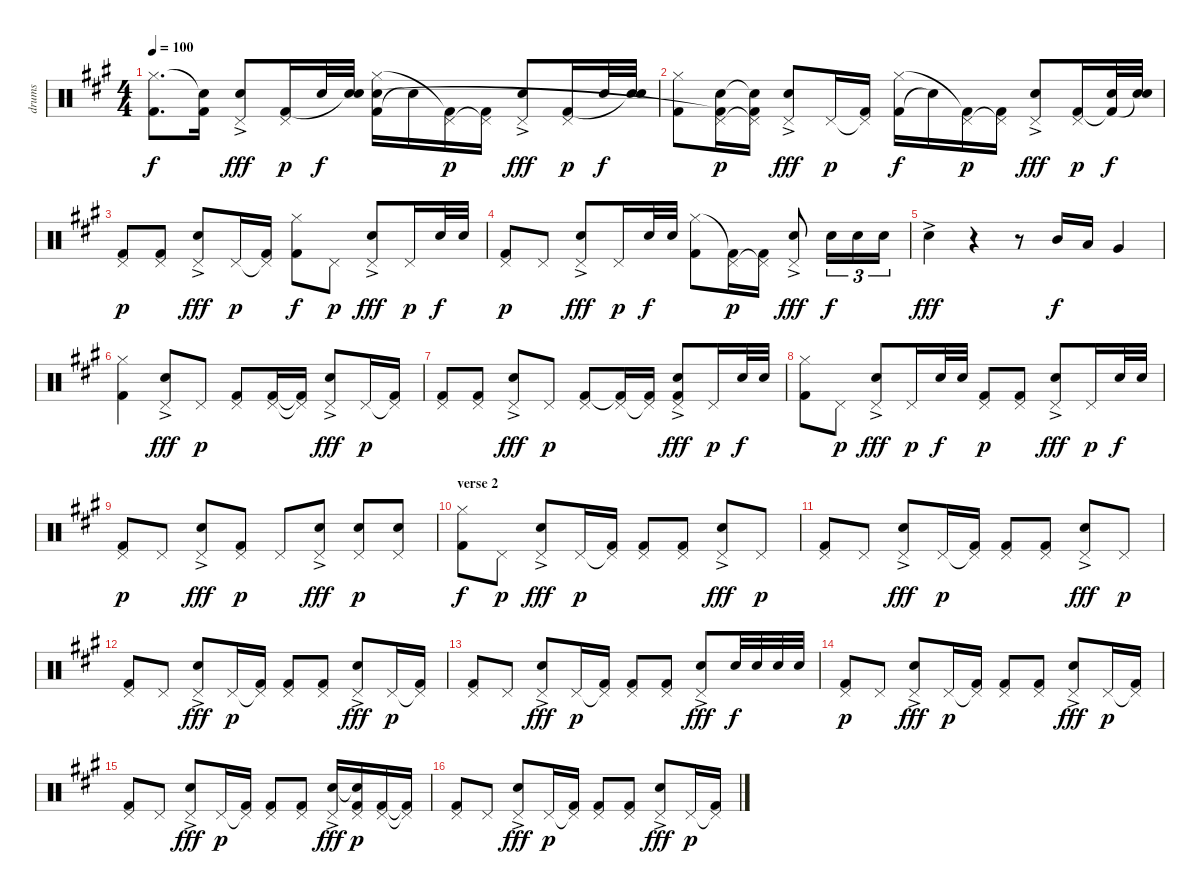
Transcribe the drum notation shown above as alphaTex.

\track ("drums" "drums") {instrument percussion}
\staff {score}
\articulation defaults
\ts (4 4)
\tempo 100
\clef neutral
\ks a
("Hi-Hat (closed)" "Kick (hit) 2").8{d dy f} ("Snare (hit)"{t} "Kick (hit) 2").16 ("Pedal Hi-Hat (hit)" "Snare (hit) 2"{ac}).8{dy fff} ("Pedal Hi-Hat (hit)" "Kick (hit) 2").16{dy p} "Snare (hit) 2".32{dy f} ("Snare (hit) 2" "Snare (hit)"{t}).32 ("Kick (hit) 2" "Hi-Hat (closed)" "Snare (hit) 2").16 "Snare (hit)"{t}.16 ("Pedal Hi-Hat (hit)" "Kick (hit) 2"{t}).16{dy p} ("Pedal Hi-Hat (hit)"{t} "Kick (hit) 2").16 ("Pedal Hi-Hat (hit)" "Snare (hit) 2"{ac}).8{dy fff} ("Pedal Hi-Hat (hit)" "Kick (hit) 2").16{dy p} "Snare (hit) 2".32{dy f} ("Snare (hit) 2" "Snare (hit)"{t}).32 |
("Hi-Hat (closed)" "Kick (hit) 2").8 ("Pedal Hi-Hat (hit)" "Snare (hit) 2" "Kick (hit) 2"{t}).16{dy p} ("Pedal Hi-Hat (hit)"{t} "Snare (hit) 2"{t} "Kick (hit) 2").16 ("Pedal Hi-Hat (hit)" "Snare (hit) 2"{ac}).8{dy fff} "Pedal Hi-Hat (hit)".16{dy p} ("Pedal Hi-Hat (hit)"{t} "Kick (hit) 2").16 ("Kick (hit) 2" "Hi-Hat (closed)").16{dy f} "Snare (hit)"{t}.16 ("Pedal Hi-Hat (hit)" "Kick (hit) 2"{t}).16{dy p} ("Pedal Hi-Hat (hit)"{t} "Kick (hit) 2").16 ("Pedal Hi-Hat (hit)" "Snare (hit) 2"{ac}).8{dy fff} ("Pedal Hi-Hat (hit)" "Kick (hit) 2").16{dy p} ("Snare (hit) 2" "Kick (hit) 2"{t}).32{dy f} ("Snare (hit) 2" "Snare (hit)"{t}).32 |
("Pedal Hi-Hat (hit)" "Kick (hit) 2").8{dy p} ("Pedal Hi-Hat (hit)" "Kick (hit) 2").8 ("Pedal Hi-Hat (hit)" "Snare (hit) 2"{ac}).8{dy fff} "Pedal Hi-Hat (hit)".16{dy p} ("Pedal Hi-Hat (hit)"{t} "Kick (hit) 2").16 ("Kick (hit) 2" "Hi-Hat (closed)").8{dy f} "Pedal Hi-Hat (hit)".8{dy p} ("Pedal Hi-Hat (hit)" "Snare (hit) 2"{ac}).8{dy fff} "Pedal Hi-Hat (hit)".16{dy p} "Snare (hit) 2".32{dy f} "Snare (hit) 2".32 |
("Pedal Hi-Hat (hit)" "Kick (hit) 2").8{dy p} "Pedal Hi-Hat (hit)".8 ("Pedal Hi-Hat (hit)" "Snare (hit) 2"{ac}).8{dy fff} "Pedal Hi-Hat (hit)".16{dy p} "Snare (hit) 2".32{dy f} "Snare (hit) 2".32 ("Kick (hit) 2" "Hi-Hat (closed)").8 ("Pedal Hi-Hat (hit)" "Kick (hit) 2"{t}).16{dy p} ("Pedal Hi-Hat (hit)"{t} "Kick (hit) 2").16 ("Pedal Hi-Hat (hit)" "Snare (hit) 2"{ac}).8{dy fff} "Snare (hit) 2".16{tu (3 2) dy f} "Snare (hit) 2".16{tu (3 2)} "Snare (hit) 2".16{tu (3 2)} |
"Snare (hit) 2"{ac}.4{dy fff} r.4 r.8 "Mid Tom (hit)".16{dy f} "Low Tom (hit)".16 "Very Low Tom (hit)".4 |
("Hi-Hat (closed)" "Kick (hit) 2").4 ("Pedal Hi-Hat (hit)" "Snare (hit) 2"{ac}).8{dy fff} "Pedal Hi-Hat (hit)".8{dy p} ("Pedal Hi-Hat (hit)" "Kick (hit) 2").8 ("Pedal Hi-Hat (hit)" "Kick (hit) 2").16 ("Pedal Hi-Hat (hit)"{t} "Kick (hit) 2"{t}).16 ("Pedal Hi-Hat (hit)" "Snare (hit) 2"{ac}).8{dy fff} "Pedal Hi-Hat (hit)".16{dy p} ("Pedal Hi-Hat (hit)"{t} "Kick (hit) 2").16 |
("Pedal Hi-Hat (hit)" "Kick (hit) 2").8 ("Pedal Hi-Hat (hit)" "Kick (hit) 2").8 ("Pedal Hi-Hat (hit)" "Snare (hit) 2"{ac}).8{dy fff} "Pedal Hi-Hat (hit)".8{dy p} ("Pedal Hi-Hat (hit)" "Kick (hit) 2").8 ("Pedal Hi-Hat (hit)" "Kick (hit) 2"{t}).16 ("Pedal Hi-Hat (hit)"{t} "Kick (hit) 2").16 ("Pedal Hi-Hat (hit)" "Kick (hit) 2" "Snare (hit) 2"{ac}).8{dy fff} "Pedal Hi-Hat (hit)".16{dy p} "Snare (hit) 2".32{dy f} "Snare (hit) 2".32 |
("Hi-Hat (closed)" "Kick (hit) 2").8 "Pedal Hi-Hat (hit)".8{dy p} ("Pedal Hi-Hat (hit)" "Snare (hit) 2"{ac}).8{dy fff} "Pedal Hi-Hat (hit)".16{dy p} "Snare (hit) 2".32{dy f} "Snare (hit) 2".32 ("Pedal Hi-Hat (hit)" "Kick (hit) 2").8{dy p} ("Pedal Hi-Hat (hit)" "Kick (hit) 2").8 ("Pedal Hi-Hat (hit)" "Snare (hit) 2"{ac}).8{dy fff} "Pedal Hi-Hat (hit)".16{dy p} "Snare (hit) 2".32{dy f} "Snare (hit) 2".32 |
("Pedal Hi-Hat (hit)" "Kick (hit) 2").8{dy p} "Pedal Hi-Hat (hit)".8 ("Pedal Hi-Hat (hit)" "Snare (hit) 2"{ac}).8{dy fff} ("Pedal Hi-Hat (hit)" "Kick (hit) 2").8{dy p} "Pedal Hi-Hat (hit)".8 ("Pedal Hi-Hat (hit)" "Snare (hit) 2"{ac}).8{dy fff} ("Pedal Hi-Hat (hit)" "Snare (hit) 2").8{dy p} ("Pedal Hi-Hat (hit)" "Snare (hit) 2").8 |
\section ("" "verse 2")
("Hi-Hat (closed)" "Kick (hit) 2").8{dy f} "Pedal Hi-Hat (hit)".8{dy p} ("Pedal Hi-Hat (hit)" "Snare (hit) 2"{ac}).8{dy fff} "Pedal Hi-Hat (hit)".16{dy p} ("Pedal Hi-Hat (hit)"{t} "Kick (hit) 2").16 ("Pedal Hi-Hat (hit)" "Kick (hit) 2").8 ("Pedal Hi-Hat (hit)" "Kick (hit) 2").8 ("Pedal Hi-Hat (hit)" "Snare (hit) 2"{ac}).8{dy fff} "Pedal Hi-Hat (hit)".8{dy p} |
("Pedal Hi-Hat (hit)" "Kick (hit) 2").8 "Pedal Hi-Hat (hit)".8 ("Pedal Hi-Hat (hit)" "Snare (hit) 2"{ac}).8{dy fff} "Pedal Hi-Hat (hit)".16{dy p} ("Pedal Hi-Hat (hit)"{t} "Kick (hit) 2").16 ("Pedal Hi-Hat (hit)" "Kick (hit) 2").8 ("Pedal Hi-Hat (hit)" "Kick (hit) 2").8 ("Pedal Hi-Hat (hit)" "Snare (hit) 2"{ac}).8{dy fff} "Pedal Hi-Hat (hit)".8{dy p} |
("Pedal Hi-Hat (hit)" "Kick (hit) 2").8 "Pedal Hi-Hat (hit)".8 ("Pedal Hi-Hat (hit)" "Snare (hit) 2"{ac}).8{dy fff} "Pedal Hi-Hat (hit)".16{dy p} ("Pedal Hi-Hat (hit)"{t} "Kick (hit) 2").16 ("Pedal Hi-Hat (hit)" "Kick (hit) 2").8 ("Pedal Hi-Hat (hit)" "Kick (hit) 2").8 ("Pedal Hi-Hat (hit)" "Snare (hit) 2"{ac}).8{dy fff} "Pedal Hi-Hat (hit)".16{dy p} ("Pedal Hi-Hat (hit)"{t} "Kick (hit) 2").16 |
("Pedal Hi-Hat (hit)" "Kick (hit) 2").8 "Pedal Hi-Hat (hit)".8 ("Pedal Hi-Hat (hit)" "Snare (hit) 2"{ac}).8{dy fff} "Pedal Hi-Hat (hit)".16{dy p} ("Pedal Hi-Hat (hit)"{t} "Kick (hit) 2").16 ("Pedal Hi-Hat (hit)" "Kick (hit) 2").8 ("Pedal Hi-Hat (hit)" "Kick (hit) 2").8 ("Pedal Hi-Hat (hit)" "Snare (hit) 2"{ac}).8{dy fff} "Snare (hit) 2".32{dy f} "Snare (hit) 2".32 "Snare (hit) 2".32 "Snare (hit) 2".32 |
("Pedal Hi-Hat (hit)" "Kick (hit) 2").8{dy p} "Pedal Hi-Hat (hit)".8 ("Pedal Hi-Hat (hit)" "Snare (hit) 2"{ac}).8{dy fff} "Pedal Hi-Hat (hit)".16{dy p} ("Pedal Hi-Hat (hit)"{t} "Kick (hit) 2").16 ("Pedal Hi-Hat (hit)" "Kick (hit) 2").8 ("Pedal Hi-Hat (hit)" "Kick (hit) 2").8 ("Pedal Hi-Hat (hit)" "Snare (hit) 2"{ac}).8{dy fff} "Pedal Hi-Hat (hit)".16{dy p} ("Pedal Hi-Hat (hit)"{t} "Kick (hit) 2").16 |
("Pedal Hi-Hat (hit)" "Kick (hit) 2").8 "Pedal Hi-Hat (hit)".8 ("Pedal Hi-Hat (hit)" "Snare (hit) 2"{ac}).8{dy fff} "Pedal Hi-Hat (hit)".16{dy p} ("Pedal Hi-Hat (hit)"{t} "Kick (hit) 2").16 ("Pedal Hi-Hat (hit)" "Kick (hit) 2").8 ("Pedal Hi-Hat (hit)" "Kick (hit) 2").8 ("Pedal Hi-Hat (hit)" "Snare (hit) 2"{ac}).16{dy fff} ("Pedal Hi-Hat (hit)" "Snare (hit)"{t} "Kick (hit) 2").16{dy p} ("Pedal Hi-Hat (hit)" "Kick (hit) 2").16 ("Pedal Hi-Hat (hit)"{t} "Kick (hit) 2"{t}).16 |
("Pedal Hi-Hat (hit)" "Kick (hit) 2").8 "Pedal Hi-Hat (hit)".8 ("Pedal Hi-Hat (hit)" "Snare (hit) 2"{ac}).8{dy fff} "Pedal Hi-Hat (hit)".16{dy p} ("Pedal Hi-Hat (hit)"{t} "Kick (hit) 2").16 ("Pedal Hi-Hat (hit)" "Kick (hit) 2").8 ("Pedal Hi-Hat (hit)" "Kick (hit) 2").8 ("Pedal Hi-Hat (hit)" "Snare (hit) 2"{ac}).8{dy fff} "Pedal Hi-Hat (hit)".16{dy p} ("Pedal Hi-Hat (hit)"{t} "Kick (hit) 2").16
